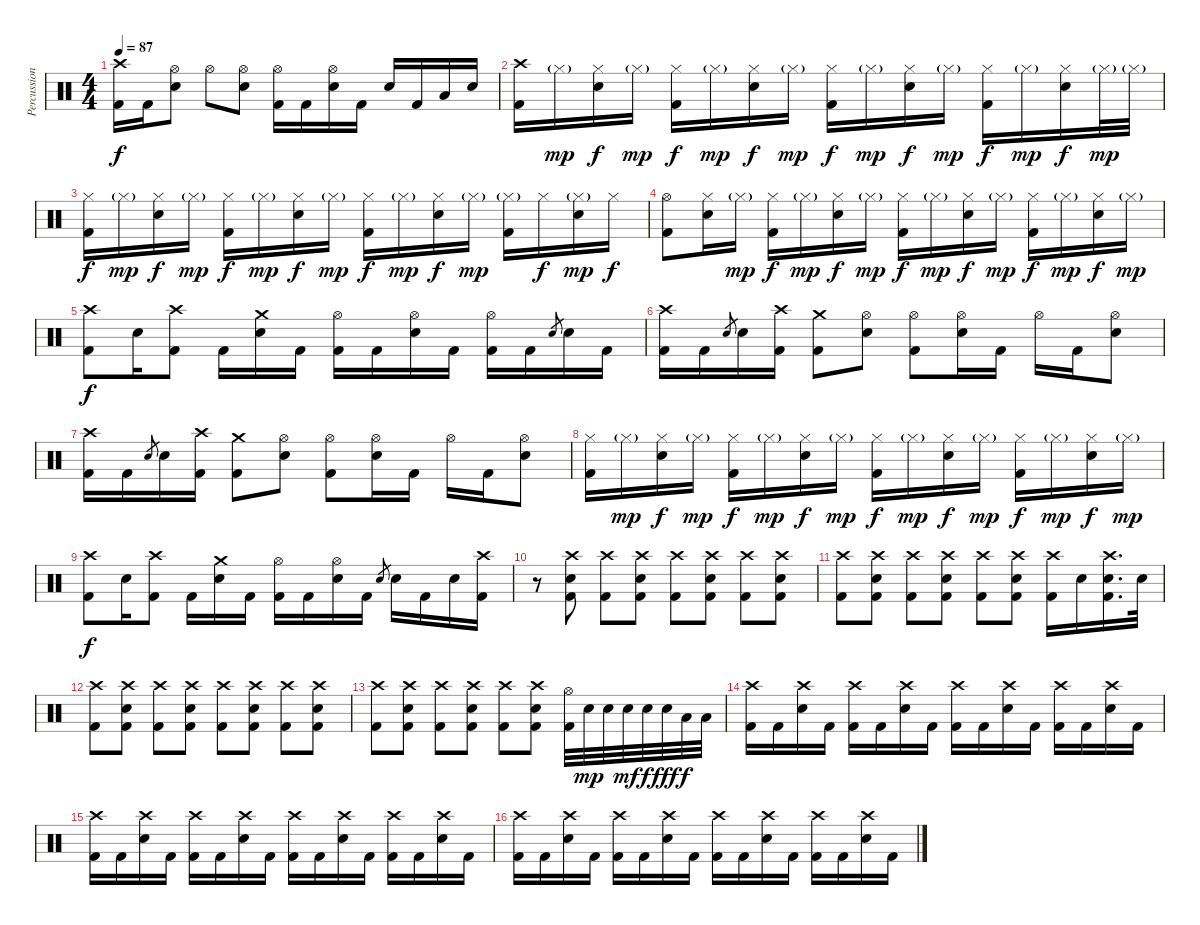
\track ("Percussion" "Percussion") {instrument percussion}
\staff {score}
\articulation defaults
\ts (4 4)
\tempo 87
\clef neutral
\ks c
("Crash high (hit)" "Kick (hit) 2").16{dy f} "Kick (hit) 2".16 ("Hi-Hat (open)" "Electric Snare (hit)").8 "Hi-Hat (open)".8 ("Hi-Hat (open)" "Electric Snare (hit)").8 ("Hi-Hat (open)" "Kick (hit) 2").16 "Kick (hit) 2".16 ("Hi-Hat (open)" "Electric Snare (hit)").16 "Kick (hit) 2".16 "Electric Snare (hit)".16 "Kick (hit) 2".16 "Low Tom (hit)".16 "Electric Snare (hit)".16 |
("Crash high (hit)" "Kick (hit) 2").16 "Hi-Hat (closed)"{g}.16{dy mp} ("Hi-Hat (closed)" "Electric Snare (hit)").16{dy f} "Hi-Hat (closed)"{g}.16{dy mp} ("Hi-Hat (closed)" "Kick (hit) 2").16{dy f} "Hi-Hat (closed)"{g}.16{dy mp} ("Hi-Hat (closed)" "Electric Snare (hit)").16{dy f} "Hi-Hat (closed)"{g}.16{dy mp} ("Hi-Hat (closed)" "Kick (hit) 2").16{dy f} "Hi-Hat (closed)"{g}.16{dy mp} ("Hi-Hat (closed)" "Electric Snare (hit)").16{dy f} "Hi-Hat (closed)"{g}.16{dy mp} ("Hi-Hat (closed)" "Kick (hit) 2").16{dy f} "Hi-Hat (closed)"{g}.16{dy mp} ("Hi-Hat (closed)" "Electric Snare (hit)").16{dy f} "Hi-Hat (closed)"{g}.32{dy mp} "Hi-Hat (closed)"{g}.32 |
("Hi-Hat (closed)" "Kick (hit) 2").16{dy f} "Hi-Hat (closed)"{g}.16{dy mp} ("Hi-Hat (closed)" "Electric Snare (hit)").16{dy f} "Hi-Hat (closed)"{g}.16{dy mp} ("Hi-Hat (closed)" "Kick (hit) 2").16{dy f} "Hi-Hat (closed)"{g}.16{dy mp} ("Hi-Hat (closed)" "Electric Snare (hit)").16{dy f} "Hi-Hat (closed)"{g}.16{dy mp} ("Hi-Hat (closed)" "Kick (hit) 2").16{dy f} "Hi-Hat (closed)"{g}.16{dy mp} ("Hi-Hat (closed)" "Electric Snare (hit)").16{dy f} "Hi-Hat (closed)"{g}.16{dy mp} ("Hi-Hat (closed)"{g} "Kick (hit) 2").16 "Hi-Hat (closed)".16{dy f} ("Hi-Hat (closed)"{g} "Electric Snare (hit)").16{dy mp} "Hi-Hat (closed)".16{dy f} |
("Hi-Hat (open)" "Kick (hit) 2").8 ("Hi-Hat (closed)" "Electric Snare (hit)").16 "Hi-Hat (closed)"{g}.16{dy mp} ("Hi-Hat (closed)" "Kick (hit) 2").16{dy f} "Hi-Hat (closed)"{g}.16{dy mp} ("Hi-Hat (closed)" "Electric Snare (hit)").16{dy f} "Hi-Hat (closed)"{g}.16{dy mp} ("Hi-Hat (closed)" "Kick (hit) 2").16{dy f} "Hi-Hat (closed)"{g}.16{dy mp} ("Hi-Hat (closed)" "Electric Snare (hit)").16{dy f} "Hi-Hat (closed)"{g}.16{dy mp} ("Hi-Hat (closed)" "Kick (hit) 2").16{dy f} "Hi-Hat (closed)"{g}.16{dy mp} ("Hi-Hat (closed)" "Electric Snare (hit)").16{dy f} "Hi-Hat (closed)"{g}.16{dy mp} |
("Crash high (hit)" "Kick (hit) 2").8{dy f} "Electric Snare (hit)".16 ("Crash high (hit)" "Kick (hit) 2").8 "Kick (hit) 2".16 ("Crash medium (hit)" "Electric Snare (hit)").16 "Kick (hit) 2".16 ("Hi-Hat (open)" "Kick (hit) 2").16 "Kick (hit) 2".16 ("Hi-Hat (open)" "Electric Snare (hit)").16 "Kick (hit) 2".16 ("Hi-Hat (open)" "Kick (hit) 2").16 "Kick (hit) 2".16 "Electric Snare (hit)".8{gr} "Electric Snare (hit)".16 "Kick (hit) 2".16 |
("Crash high (hit)" "Kick (hit) 2").16 "Kick (hit) 2".16 "Electric Snare (hit)".8{gr} "Electric Snare (hit)".16 ("Crash high (hit)" "Kick (hit) 2").16 ("Crash medium (hit)" "Kick (hit) 2").8 ("Hi-Hat (open)" "Electric Snare (hit)").8 ("Hi-Hat (open)" "Kick (hit) 2").8 ("Hi-Hat (open)" "Electric Snare (hit)").16 "Kick (hit) 2".16 "Hi-Hat (open)".16 "Kick (hit) 2".16 ("Hi-Hat (open)" "Electric Snare (hit)").8 |
("Crash high (hit)" "Kick (hit) 2").16 "Kick (hit) 2".16 "Electric Snare (hit)".8{gr} "Electric Snare (hit)".16 ("Crash high (hit)" "Kick (hit) 2").16 ("Crash medium (hit)" "Kick (hit) 2").8 ("Hi-Hat (open)" "Electric Snare (hit)").8 ("Hi-Hat (open)" "Kick (hit) 2").8 ("Hi-Hat (open)" "Electric Snare (hit)").16 "Kick (hit) 2".16 "Hi-Hat (open)".16 "Kick (hit) 2".16 ("Hi-Hat (open)" "Electric Snare (hit)").8 |
("Hi-Hat (closed)" "Kick (hit) 2").16 "Hi-Hat (closed)"{g}.16{dy mp} ("Hi-Hat (closed)" "Electric Snare (hit)").16{dy f} "Hi-Hat (closed)"{g}.16{dy mp} ("Hi-Hat (closed)" "Kick (hit) 2").16{dy f} "Hi-Hat (closed)"{g}.16{dy mp} ("Hi-Hat (closed)" "Electric Snare (hit)").16{dy f} "Hi-Hat (closed)"{g}.16{dy mp} ("Hi-Hat (closed)" "Kick (hit) 2").16{dy f} "Hi-Hat (closed)"{g}.16{dy mp} ("Hi-Hat (closed)" "Electric Snare (hit)").16{dy f} "Hi-Hat (closed)"{g}.16{dy mp} ("Hi-Hat (closed)" "Kick (hit) 2").16{dy f} "Hi-Hat (closed)"{g}.16{dy mp} ("Hi-Hat (closed)" "Electric Snare (hit)").16{dy f} "Hi-Hat (closed)"{g}.16{dy mp} |
("Crash high (hit)" "Kick (hit) 2").8{dy f} "Electric Snare (hit)".16 ("Crash high (hit)" "Kick (hit) 2").8 "Kick (hit) 2".16 ("Crash medium (hit)" "Electric Snare (hit)").16 "Kick (hit) 2".16 ("Hi-Hat (open)" "Kick (hit) 2").16 "Kick (hit) 2".16 ("Hi-Hat (open)" "Electric Snare (hit)").16 "Kick (hit) 2".16 "Electric Snare (hit)".8{gr} "Electric Snare (hit)".16 "Kick (hit) 2".16 "Electric Snare (hit)".16 ("Crash high (hit)" "Kick (hit) 2").16 |
r.8 ("Crash high (hit)" "Electric Snare (hit)" "Kick (hit) 2").8 ("Crash high (hit)" "Kick (hit) 2").8 ("Crash high (hit)" "Electric Snare (hit)" "Kick (hit) 2").8 ("Crash high (hit)" "Kick (hit) 2").8 ("Crash high (hit)" "Electric Snare (hit)" "Kick (hit) 2").8 ("Crash high (hit)" "Kick (hit) 2").8 ("Crash high (hit)" "Electric Snare (hit)" "Kick (hit) 2").8 |
("Crash high (hit)" "Kick (hit) 2").8 ("Crash high (hit)" "Electric Snare (hit)" "Kick (hit) 2").8 ("Crash high (hit)" "Kick (hit) 2").8 ("Crash high (hit)" "Electric Snare (hit)" "Kick (hit) 2").8 ("Crash high (hit)" "Kick (hit) 2").8 ("Crash high (hit)" "Electric Snare (hit)" "Kick (hit) 2").8 ("Crash high (hit)" "Kick (hit) 2").16 "Electric Snare (hit)".16 ("Crash high (hit)" "Electric Snare (hit)" "Kick (hit) 2").16{d} "Electric Snare (hit)".32 |
("Crash high (hit)" "Kick (hit) 2").8 ("Crash high (hit)" "Electric Snare (hit)" "Kick (hit) 2").8 ("Crash high (hit)" "Kick (hit) 2").8 ("Crash high (hit)" "Electric Snare (hit)" "Kick (hit) 2").8 ("Crash high (hit)" "Kick (hit) 2").8 ("Crash high (hit)" "Electric Snare (hit)" "Kick (hit) 2").8 ("Crash high (hit)" "Kick (hit) 2").8 ("Crash high (hit)" "Electric Snare (hit)" "Kick (hit) 2").8 |
("Crash high (hit)" "Kick (hit) 2").8 ("Crash high (hit)" "Electric Snare (hit)" "Kick (hit) 2").8 ("Crash high (hit)" "Kick (hit) 2").8 ("Crash high (hit)" "Electric Snare (hit)" "Kick (hit) 2").8 ("Crash high (hit)" "Kick (hit) 2").8 ("Crash high (hit)" "Electric Snare (hit)" "Kick (hit) 2").8 ("Hi-Hat (open)" "Kick (hit) 2").32 "Electric Snare (hit)".32{dy mp} "Electric Snare (hit)".32 "Electric Snare (hit)".32{dy mf} "Electric Snare (hit)".32{dy f} "Electric Snare (hit)".32{dy fff} "Low Tom (hit)".32{dy f} "Low Tom (hit)".32 |
("Crash high (hit)" "Kick (hit) 2").16 "Kick (hit) 2".16 ("Crash high (hit)" "Electric Snare (hit)").16 "Kick (hit) 2".16 ("Crash high (hit)" "Kick (hit) 2").16 "Kick (hit) 2".16 ("Crash high (hit)" "Electric Snare (hit)").16 "Kick (hit) 2".16 ("Crash high (hit)" "Kick (hit) 2").16 "Kick (hit) 2".16 ("Crash high (hit)" "Electric Snare (hit)").16 "Kick (hit) 2".16 ("Crash high (hit)" "Kick (hit) 2").16 "Kick (hit) 2".16 ("Crash high (hit)" "Electric Snare (hit)").16 "Kick (hit) 2".16 |
("Crash high (hit)" "Kick (hit) 2").16 "Kick (hit) 2".16 ("Crash high (hit)" "Electric Snare (hit)").16 "Kick (hit) 2".16 ("Crash high (hit)" "Kick (hit) 2").16 "Kick (hit) 2".16 ("Crash high (hit)" "Electric Snare (hit)").16 "Kick (hit) 2".16 ("Crash high (hit)" "Kick (hit) 2").16 "Kick (hit) 2".16 ("Crash high (hit)" "Electric Snare (hit)").16 "Kick (hit) 2".16 ("Crash high (hit)" "Kick (hit) 2").16 "Kick (hit) 2".16 ("Crash high (hit)" "Electric Snare (hit)").16 "Kick (hit) 2".16 |
("Crash high (hit)" "Kick (hit) 2").16 "Kick (hit) 2".16 ("Crash high (hit)" "Electric Snare (hit)").16 "Kick (hit) 2".16 ("Crash high (hit)" "Kick (hit) 2").16 "Kick (hit) 2".16 ("Crash high (hit)" "Electric Snare (hit)").16 "Kick (hit) 2".16 ("Crash high (hit)" "Kick (hit) 2").16 "Kick (hit) 2".16 ("Crash high (hit)" "Electric Snare (hit)").16 "Kick (hit) 2".16 ("Crash high (hit)" "Kick (hit) 2").16 "Kick (hit) 2".16 ("Crash high (hit)" "Electric Snare (hit)").16 "Kick (hit) 2".16
